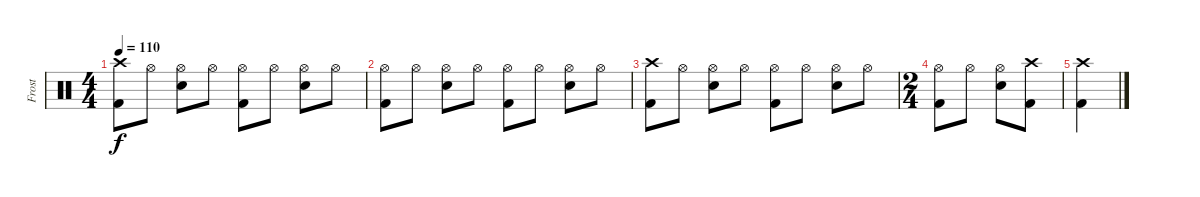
\track ("Frost" "Frost") {instrument percussion}
\staff {score}
\articulation defaults
\ts (4 4)
\tempo 110
\clef neutral
\ks c
("Crash high (hit)" "Kick (hit) 2").8{dy f} "Hi-Hat (open)".8 ("Hi-Hat (open)" "Snare (hit) 2").8 "Hi-Hat (open)".8 ("Hi-Hat (open)" "Kick (hit) 2").8 "Hi-Hat (open)".8 ("Hi-Hat (open)" "Snare (hit) 2").8 "Hi-Hat (open)".8 |
("Hi-Hat (open)" "Kick (hit) 2").8 "Hi-Hat (open)".8 ("Hi-Hat (open)" "Snare (hit) 2").8 "Hi-Hat (open)".8 ("Hi-Hat (open)" "Kick (hit) 2").8 "Hi-Hat (open)".8 ("Hi-Hat (open)" "Snare (hit) 2").8 "Hi-Hat (open)".8 |
("Crash high (hit)" "Kick (hit) 2").8 "Hi-Hat (open)".8 ("Hi-Hat (open)" "Snare (hit) 2").8 "Hi-Hat (open)".8 ("Hi-Hat (open)" "Kick (hit) 2").8 "Hi-Hat (open)".8 ("Hi-Hat (open)" "Snare (hit) 2").8 "Hi-Hat (open)".8 |
\ts (2 4)
("Hi-Hat (open)" "Kick (hit) 2").8 "Hi-Hat (open)".8 ("Hi-Hat (open)" "Snare (hit) 2").8 ("Crash high (hit)" "Kick (hit) 2").8 |
("Crash high (hit)" "Kick (hit) 2").4
